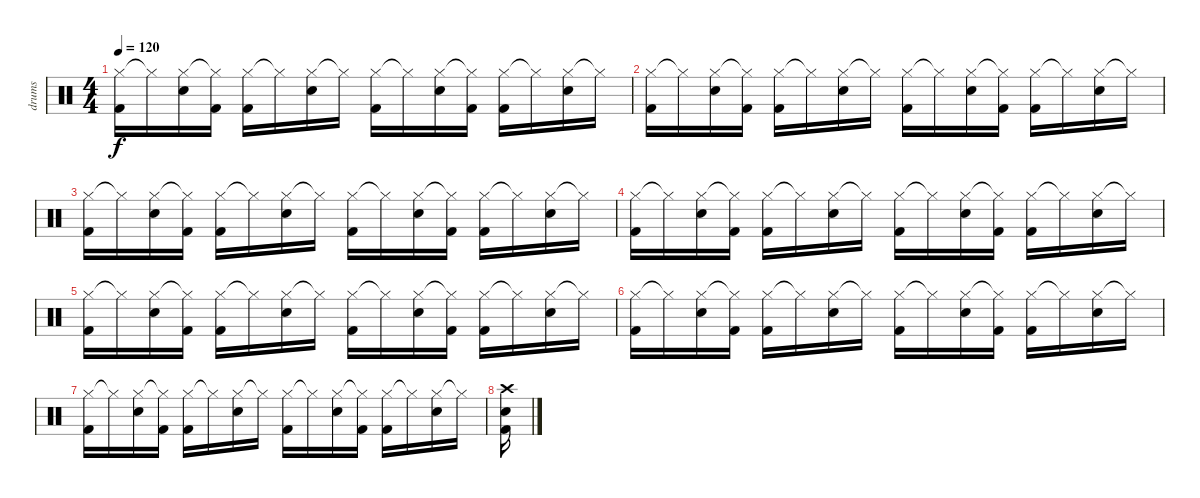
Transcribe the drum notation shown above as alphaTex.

\track ("drums" "drums") {instrument percussion}
\staff {score}
\articulation defaults
\ts (4 4)
\tempo 120
\clef neutral
\ks c
("Hi-Hat (closed)" "Kick (hit) 2").16{dy f} "Hi-Hat (closed)"{t}.16 ("Hi-Hat (closed)" "Snare (hit) 2").16 ("Hi-Hat (closed)"{t} "Kick (hit) 2").16 ("Hi-Hat (closed)" "Kick (hit) 2").16 "Hi-Hat (closed)"{t}.16 ("Hi-Hat (closed)" "Snare (hit) 2").16 "Hi-Hat (closed)"{t}.16 ("Hi-Hat (closed)" "Kick (hit) 2").16 "Hi-Hat (closed)"{t}.16 ("Hi-Hat (closed)" "Snare (hit) 2").16 ("Hi-Hat (closed)"{t} "Kick (hit) 2").16 ("Hi-Hat (closed)" "Kick (hit) 2").16 "Hi-Hat (closed)"{t}.16 ("Hi-Hat (closed)" "Snare (hit) 2").16 "Hi-Hat (closed)"{t}.16 |
("Hi-Hat (closed)" "Kick (hit) 2").16 "Hi-Hat (closed)"{t}.16 ("Hi-Hat (closed)" "Snare (hit) 2").16 ("Hi-Hat (closed)"{t} "Kick (hit) 2").16 ("Hi-Hat (closed)" "Kick (hit) 2").16 "Hi-Hat (closed)"{t}.16 ("Hi-Hat (closed)" "Snare (hit) 2").16 "Hi-Hat (closed)"{t}.16 ("Hi-Hat (closed)" "Kick (hit) 2").16 "Hi-Hat (closed)"{t}.16 ("Hi-Hat (closed)" "Snare (hit) 2").16 ("Hi-Hat (closed)"{t} "Kick (hit) 2").16 ("Hi-Hat (closed)" "Kick (hit) 2").16 "Hi-Hat (closed)"{t}.16 ("Hi-Hat (closed)" "Snare (hit) 2").16 "Hi-Hat (closed)"{t}.16 |
("Hi-Hat (closed)" "Kick (hit) 2").16 "Hi-Hat (closed)"{t}.16 ("Hi-Hat (closed)" "Snare (hit) 2").16 ("Hi-Hat (closed)"{t} "Kick (hit) 2").16 ("Hi-Hat (closed)" "Kick (hit) 2").16 "Hi-Hat (closed)"{t}.16 ("Hi-Hat (closed)" "Snare (hit) 2").16 "Hi-Hat (closed)"{t}.16 ("Hi-Hat (closed)" "Kick (hit) 2").16 "Hi-Hat (closed)"{t}.16 ("Hi-Hat (closed)" "Snare (hit) 2").16 ("Hi-Hat (closed)"{t} "Kick (hit) 2").16 ("Hi-Hat (closed)" "Kick (hit) 2").16 "Hi-Hat (closed)"{t}.16 ("Hi-Hat (closed)" "Snare (hit) 2").16 "Hi-Hat (closed)"{t}.16 |
("Hi-Hat (closed)" "Kick (hit) 2").16 "Hi-Hat (closed)"{t}.16 ("Hi-Hat (closed)" "Snare (hit) 2").16 ("Hi-Hat (closed)"{t} "Kick (hit) 2").16 ("Hi-Hat (closed)" "Kick (hit) 2").16 "Hi-Hat (closed)"{t}.16 ("Hi-Hat (closed)" "Snare (hit) 2").16 "Hi-Hat (closed)"{t}.16 ("Hi-Hat (closed)" "Kick (hit) 2").16 "Hi-Hat (closed)"{t}.16 ("Hi-Hat (closed)" "Snare (hit) 2").16 ("Hi-Hat (closed)"{t} "Kick (hit) 2").16 ("Hi-Hat (closed)" "Kick (hit) 2").16 "Hi-Hat (closed)"{t}.16 ("Hi-Hat (closed)" "Snare (hit) 2").16 "Hi-Hat (closed)"{t}.16 |
("Hi-Hat (closed)" "Kick (hit) 2").16 "Hi-Hat (closed)"{t}.16 ("Hi-Hat (closed)" "Snare (hit) 2").16 ("Hi-Hat (closed)"{t} "Kick (hit) 2").16 ("Hi-Hat (closed)" "Kick (hit) 2").16 "Hi-Hat (closed)"{t}.16 ("Hi-Hat (closed)" "Snare (hit) 2").16 "Hi-Hat (closed)"{t}.16 ("Hi-Hat (closed)" "Kick (hit) 2").16 "Hi-Hat (closed)"{t}.16 ("Hi-Hat (closed)" "Snare (hit) 2").16 ("Hi-Hat (closed)"{t} "Kick (hit) 2").16 ("Hi-Hat (closed)" "Kick (hit) 2").16 "Hi-Hat (closed)"{t}.16 ("Hi-Hat (closed)" "Snare (hit) 2").16 "Hi-Hat (closed)"{t}.16 |
("Hi-Hat (closed)" "Kick (hit) 2").16 "Hi-Hat (closed)"{t}.16 ("Hi-Hat (closed)" "Snare (hit) 2").16 ("Hi-Hat (closed)"{t} "Kick (hit) 2").16 ("Hi-Hat (closed)" "Kick (hit) 2").16 "Hi-Hat (closed)"{t}.16 ("Hi-Hat (closed)" "Snare (hit) 2").16 "Hi-Hat (closed)"{t}.16 ("Hi-Hat (closed)" "Kick (hit) 2").16 "Hi-Hat (closed)"{t}.16 ("Hi-Hat (closed)" "Snare (hit) 2").16 ("Hi-Hat (closed)"{t} "Kick (hit) 2").16 ("Hi-Hat (closed)" "Kick (hit) 2").16 "Hi-Hat (closed)"{t}.16 ("Hi-Hat (closed)" "Snare (hit) 2").16 "Hi-Hat (closed)"{t}.16 |
("Hi-Hat (closed)" "Kick (hit) 2").16 "Hi-Hat (closed)"{t}.16 ("Hi-Hat (closed)" "Snare (hit) 2").16 ("Hi-Hat (closed)"{t} "Kick (hit) 2").16 ("Hi-Hat (closed)" "Kick (hit) 2").16 "Hi-Hat (closed)"{t}.16 ("Hi-Hat (closed)" "Snare (hit) 2").16 "Hi-Hat (closed)"{t}.16 ("Hi-Hat (closed)" "Kick (hit) 2").16 "Hi-Hat (closed)"{t}.16 ("Hi-Hat (closed)" "Snare (hit) 2").16 ("Hi-Hat (closed)"{t} "Kick (hit) 2").16 ("Hi-Hat (closed)" "Kick (hit) 2").16 "Hi-Hat (closed)"{t}.16 ("Hi-Hat (closed)" "Snare (hit) 2").16 "Hi-Hat (closed)"{t}.16 |
("Crash high (hit)" "Snare (hit) 2" "Kick (hit) 2").16
